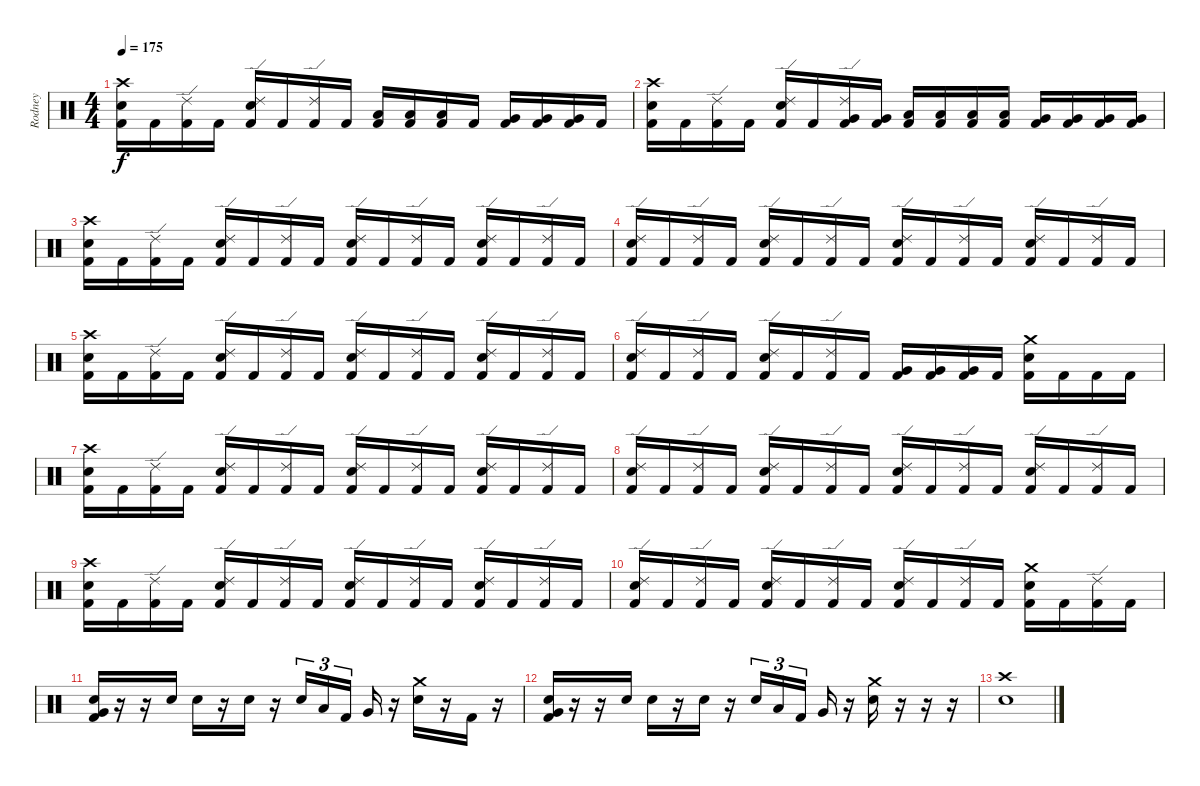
\track ("Rodney" "Rodney") {instrument percussion}
\staff {score}
\articulation defaults
\ts (4 4)
\tempo 175
\clef neutral
\ks c
("Crash high (hit)" "Snare (hit) 2" "Kick (hit) 2").16{dy f} "Kick (hit) 2".16 ("Ride (edge) 2" "Kick (hit) 2").16 "Kick (hit) 2".16 ("Ride (edge) 2" "Snare (hit) 2" "Kick (hit) 2").16 "Kick (hit) 2".16 ("Ride (edge) 2" "Kick (hit) 2").16 "Kick (hit) 2".16 ("Low Tom (hit)" "Kick (hit) 2").16 ("Low Tom (hit)" "Kick (hit) 2").16 ("Low Tom (hit)" "Kick (hit) 2").16 "Kick (hit) 2".16 ("Very Low Tom (hit)" "Kick (hit) 2").16 ("Very Low Tom (hit)" "Kick (hit) 2").16 ("Very Low Tom (hit)" "Kick (hit) 2").16 "Kick (hit) 2".16 |
("Crash high (hit)" "Snare (hit) 2" "Kick (hit) 2").16 "Kick (hit) 2".16 ("Ride (edge) 2" "Kick (hit) 2").16 "Kick (hit) 2".16 ("Ride (edge) 2" "Snare (hit) 2" "Kick (hit) 2").16 "Kick (hit) 2".16 ("Ride (edge) 2" "Very Low Tom (hit)" "Kick (hit) 2").16 ("Very Low Tom (hit)" "Kick (hit) 2").16 ("Low Tom (hit)" "Kick (hit) 2").16 ("Low Tom (hit)" "Kick (hit) 2").16 ("Low Tom (hit)" "Kick (hit) 2").16 ("Low Tom (hit)" "Kick (hit) 2").16 ("Very Low Tom (hit)" "Kick (hit) 2").16 ("Very Low Tom (hit)" "Kick (hit) 2").16 ("Very Low Tom (hit)" "Kick (hit) 2").16 ("Very Low Tom (hit)" "Kick (hit) 2").16 |
("Crash high (hit)" "Snare (hit) 2" "Kick (hit) 2").16 "Kick (hit) 2".16 ("Ride (edge) 2" "Kick (hit) 2").16 "Kick (hit) 2".16 ("Ride (edge) 2" "Snare (hit) 2" "Kick (hit) 2").16 "Kick (hit) 2".16 ("Ride (edge) 2" "Kick (hit) 2").16 "Kick (hit) 2".16 ("Ride (edge) 2" "Snare (hit) 2" "Kick (hit) 2").16 "Kick (hit) 2".16 ("Ride (edge) 2" "Kick (hit) 2").16 "Kick (hit) 2".16 ("Ride (edge) 2" "Snare (hit) 2" "Kick (hit) 2").16 "Kick (hit) 2".16 ("Ride (edge) 2" "Kick (hit) 2").16 "Kick (hit) 2".16 |
("Ride (edge) 2" "Snare (hit) 2" "Kick (hit) 2").16 "Kick (hit) 2".16 ("Ride (edge) 2" "Kick (hit) 2").16 "Kick (hit) 2".16 ("Ride (edge) 2" "Snare (hit) 2" "Kick (hit) 2").16 "Kick (hit) 2".16 ("Ride (edge) 2" "Kick (hit) 2").16 "Kick (hit) 2".16 ("Ride (edge) 2" "Snare (hit) 2" "Kick (hit) 2").16 "Kick (hit) 2".16 ("Ride (edge) 2" "Kick (hit) 2").16 "Kick (hit) 2".16 ("Ride (edge) 2" "Snare (hit) 2" "Kick (hit) 2").16 "Kick (hit) 2".16 ("Ride (edge) 2" "Kick (hit) 2").16 "Kick (hit) 2".16 |
("Crash high (hit)" "Snare (hit) 2" "Kick (hit) 2").16 "Kick (hit) 2".16 ("Ride (edge) 2" "Kick (hit) 2").16 "Kick (hit) 2".16 ("Ride (edge) 2" "Snare (hit) 2" "Kick (hit) 2").16 "Kick (hit) 2".16 ("Ride (edge) 2" "Kick (hit) 2").16 "Kick (hit) 2".16 ("Ride (edge) 2" "Snare (hit) 2" "Kick (hit) 2").16 "Kick (hit) 2".16 ("Ride (edge) 2" "Kick (hit) 2").16 "Kick (hit) 2".16 ("Ride (edge) 2" "Snare (hit) 2" "Kick (hit) 2").16 "Kick (hit) 2".16 ("Ride (edge) 2" "Kick (hit) 2").16 "Kick (hit) 2".16 |
("Ride (edge) 2" "Snare (hit) 2" "Kick (hit) 2").16 "Kick (hit) 2".16 ("Ride (edge) 2" "Kick (hit) 2").16 "Kick (hit) 2".16 ("Ride (edge) 2" "Snare (hit) 2" "Kick (hit) 2").16 "Kick (hit) 2".16 ("Ride (edge) 2" "Kick (hit) 2").16 "Kick (hit) 2".16 ("Very Low Tom (hit)" "Kick (hit) 2").16 ("Very Low Tom (hit)" "Kick (hit) 2").16 ("Very Low Tom (hit)" "Kick (hit) 2").16 "Kick (hit) 2".16 ("Crash medium (hit)" "Snare (hit) 2" "Kick (hit) 2").16 "Kick (hit) 2".16 "Kick (hit) 2".16 "Kick (hit) 2".16 |
("Crash high (hit)" "Snare (hit) 2" "Kick (hit) 2").16 "Kick (hit) 2".16 ("Ride (edge) 2" "Kick (hit) 2").16 "Kick (hit) 2".16 ("Ride (edge) 2" "Snare (hit) 2" "Kick (hit) 2").16 "Kick (hit) 2".16 ("Ride (edge) 2" "Kick (hit) 2").16 "Kick (hit) 2".16 ("Ride (edge) 2" "Snare (hit) 2" "Kick (hit) 2").16 "Kick (hit) 2".16 ("Ride (edge) 2" "Kick (hit) 2").16 "Kick (hit) 2".16 ("Ride (edge) 2" "Snare (hit) 2" "Kick (hit) 2").16 "Kick (hit) 2".16 ("Ride (edge) 2" "Kick (hit) 2").16 "Kick (hit) 2".16 |
("Ride (edge) 2" "Snare (hit) 2" "Kick (hit) 2").16 "Kick (hit) 2".16 ("Ride (edge) 2" "Kick (hit) 2").16 "Kick (hit) 2".16 ("Ride (edge) 2" "Snare (hit) 2" "Kick (hit) 2").16 "Kick (hit) 2".16 ("Ride (edge) 2" "Kick (hit) 2").16 "Kick (hit) 2".16 ("Ride (edge) 2" "Snare (hit) 2" "Kick (hit) 2").16 "Kick (hit) 2".16 ("Ride (edge) 2" "Kick (hit) 2").16 "Kick (hit) 2".16 ("Ride (edge) 2" "Snare (hit) 2" "Kick (hit) 2").16 "Kick (hit) 2".16 ("Ride (edge) 2" "Kick (hit) 2").16 "Kick (hit) 2".16 |
("Crash high (hit)" "Snare (hit) 2" "Kick (hit) 2").16 "Kick (hit) 2".16 ("Ride (edge) 2" "Kick (hit) 2").16 "Kick (hit) 2".16 ("Ride (edge) 2" "Snare (hit) 2" "Kick (hit) 2").16 "Kick (hit) 2".16 ("Ride (edge) 2" "Kick (hit) 2").16 "Kick (hit) 2".16 ("Ride (edge) 2" "Snare (hit) 2" "Kick (hit) 2").16 "Kick (hit) 2".16 ("Ride (edge) 2" "Kick (hit) 2").16 "Kick (hit) 2".16 ("Ride (edge) 2" "Snare (hit) 2" "Kick (hit) 2").16 "Kick (hit) 2".16 ("Ride (edge) 2" "Kick (hit) 2").16 "Kick (hit) 2".16 |
("Ride (edge) 2" "Snare (hit) 2" "Kick (hit) 2").16 "Kick (hit) 2".16 ("Ride (edge) 2" "Kick (hit) 2").16 "Kick (hit) 2".16 ("Ride (edge) 2" "Snare (hit) 2" "Kick (hit) 2").16 "Kick (hit) 2".16 ("Ride (edge) 2" "Kick (hit) 2").16 "Kick (hit) 2".16 ("Ride (edge) 2" "Snare (hit) 2" "Kick (hit) 2").16 "Kick (hit) 2".16 ("Ride (edge) 2" "Kick (hit) 2").16 "Kick (hit) 2".16 ("Crash medium (hit)" "Snare (hit) 2" "Kick (hit) 2").16 "Kick (hit) 2".16 ("Ride (edge) 2" "Kick (hit) 2").16 "Kick (hit) 2".16 |
("Snare (hit) 2" "Very Low Tom (hit)" "Kick (hit) 2").16 r.16 r.16 "Snare (hit) 2".16 "Snare (hit) 2".16 r.16 "Snare (hit) 2".16 r.16 "Snare (hit) 2".16{tu (3 2)} "Low Tom (hit)".16{tu (3 2)} "Kick (hit) 2".16{tu (3 2)} "Very Low Tom (hit)".16 r.16 ("Crash medium (hit)" "Snare (hit) 2").16 r.16 "Kick (hit) 2".16 r.16 |
("Snare (hit) 2" "Very Low Tom (hit)" "Kick (hit) 2").16 r.16 r.16 "Snare (hit) 2".16 "Snare (hit) 2".16 r.16 "Snare (hit) 2".16 r.16 "Snare (hit) 2".16{tu (3 2)} "Low Tom (hit)".16{tu (3 2)} "Kick (hit) 2".16{tu (3 2)} "Very Low Tom (hit)".16 r.16 ("Crash medium (hit)" "Snare (hit) 2").16 r.16 r.16 r.16 |
("Crash high (hit)" "Snare (hit) 2").1
